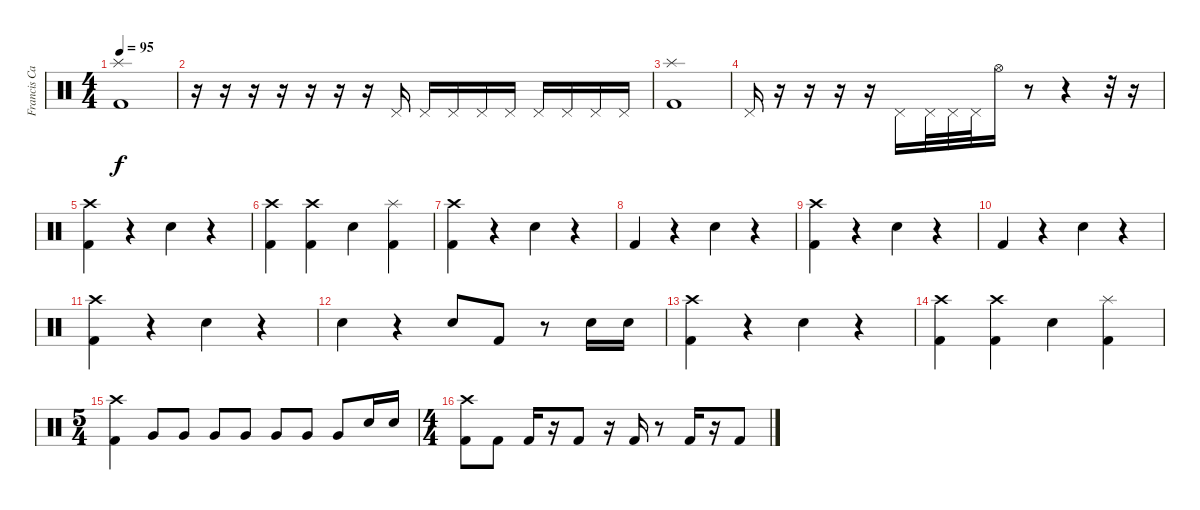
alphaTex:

\track ("Francis Cassol" "Francis Ca") {instrument percussion}
\staff {score}
\articulation defaults
\ts (4 4)
\tempo 95
\clef neutral
\ks c
("Kick (hit) 2" "Splash (hit)").1{dy f} |
r.16 r.16 r.16 r.16 r.16 r.16 r.16 "Pedal Hi-Hat (hit)".16{volume 0} "Pedal Hi-Hat (hit)".16{volume 16} "Pedal Hi-Hat (hit)".16 "Pedal Hi-Hat (hit)".16 "Pedal Hi-Hat (hit)".16 "Pedal Hi-Hat (hit)".16 "Pedal Hi-Hat (hit)".16 "Pedal Hi-Hat (hit)".16 "Pedal Hi-Hat (hit)".16 |
("Kick (hit) 2" "Splash (hit)").1 |
"Pedal Hi-Hat (hit)".16 r.16 r.16 r.16 r.16 "Pedal Hi-Hat (hit)".16 "Pedal Hi-Hat (hit)".32 "Pedal Hi-Hat (hit)".32 "Pedal Hi-Hat (hit)".32 "Hi-Hat (open)".16 r.8 r.4 r.32 r.16 |
("Crash high (hit)" "Kick (hit) 2").4 r.4 "Electric Snare (hit)".4 r.4 |
("Crash high (hit)" "Kick (hit) 2").4 ("Crash high (hit)" "Kick (hit) 2").4 "Electric Snare (hit)".4 ("Splash (hit)" "Kick (hit) 2").4 |
("Crash high (hit)" "Kick (hit) 2").4 r.4 "Electric Snare (hit)".4 r.4 |
"Kick (hit) 2".4 r.4 "Electric Snare (hit)".4 r.4 |
("Crash high (hit)" "Kick (hit) 2").4 r.4 "Electric Snare (hit)".4 r.4 |
"Kick (hit) 2".4 r.4 "Electric Snare (hit)".4 r.4 |
("Crash high (hit)" "Kick (hit) 2").4 r.4 "Electric Snare (hit)".4 r.4 |
"Electric Snare (hit)".4 r.4 "Electric Snare (hit)".8 "Kick (hit) 2".8 r.8 "Electric Snare (hit)".16 "Electric Snare (hit)".16 |
("Crash high (hit)" "Kick (hit) 2").4 r.4 "Electric Snare (hit)".4 r.4 |
("Crash high (hit)" "Kick (hit) 2").4 ("Crash high (hit)" "Kick (hit) 2").4 "Electric Snare (hit)".4 ("Splash (hit)" "Kick (hit) 2").4 |
\ts (5 4)
("Crash high (hit)" "Kick (hit) 2").4 "Very Low Tom (hit)".8 "Very Low Tom (hit)".8 "Very Low Tom (hit)".8 "Very Low Tom (hit)".8 "Very Low Tom (hit)".8 "Very Low Tom (hit)".8 "Very Low Tom (hit)".8 "Electric Snare (hit)".16 "Electric Snare (hit)".16 |
\ts (4 4)
("Crash high (hit)" "Kick (hit) 2").8 "Kick (hit) 2".8 "Kick (hit) 2".16 r.16 "Kick (hit) 2".8 r.16 "Kick (hit) 2".16 r.8 "Kick (hit) 2".16 r.16 "Kick (hit) 2".8
